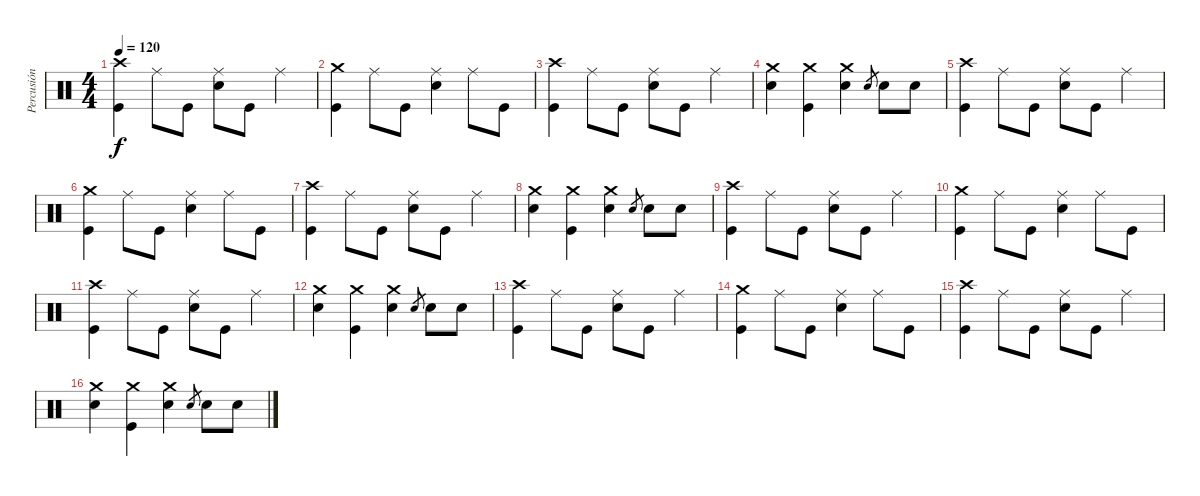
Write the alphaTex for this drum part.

\track ("Percusión" "Percusión") {instrument percussion}
\staff {score}
\articulation defaults
\ts (4 4)
\tempo 120
\clef neutral
\ks c
("Crash high (hit)" "Kick (hit)").4{dy f} "Ride (middle)".8 "Kick (hit)".8 ("Ride (middle)" "Electric Snare (hit)").8 "Kick (hit)".8 "Ride (middle)".4 |
("Crash medium (hit)" "Kick (hit)").4 "Ride (middle)".8 "Kick (hit)".8 ("Ride (middle)" "Electric Snare (hit)").4 "Ride (middle)".8 "Kick (hit)".8 |
("Crash high (hit)" "Kick (hit)").4 "Ride (middle)".8 "Kick (hit)".8 ("Ride (middle)" "Electric Snare (hit)").8 "Kick (hit)".8 "Ride (middle)".4 |
("Crash medium (hit)" "Electric Snare (hit)").4 ("Crash medium (hit)" "Kick (hit)").4 ("Crash medium (hit)" "Electric Snare (hit)").4 "Electric Snare (hit)".8{gr} "Electric Snare (hit)".8 "Electric Snare (hit)".8 |
("Crash high (hit)" "Kick (hit)").4 "Ride (middle)".8 "Kick (hit)".8 ("Ride (middle)" "Electric Snare (hit)").8 "Kick (hit)".8 "Ride (middle)".4 |
("Crash medium (hit)" "Kick (hit)").4 "Ride (middle)".8 "Kick (hit)".8 ("Ride (middle)" "Electric Snare (hit)").4 "Ride (middle)".8 "Kick (hit)".8 |
("Crash high (hit)" "Kick (hit)").4 "Ride (middle)".8 "Kick (hit)".8 ("Ride (middle)" "Electric Snare (hit)").8 "Kick (hit)".8 "Ride (middle)".4 |
("Crash medium (hit)" "Electric Snare (hit)").4 ("Crash medium (hit)" "Kick (hit)").4 ("Crash medium (hit)" "Electric Snare (hit)").4 "Electric Snare (hit)".8{gr} "Electric Snare (hit)".8 "Electric Snare (hit)".8 |
("Crash high (hit)" "Kick (hit)").4 "Ride (middle)".8 "Kick (hit)".8 ("Ride (middle)" "Electric Snare (hit)").8 "Kick (hit)".8 "Ride (middle)".4 |
("Crash medium (hit)" "Kick (hit)").4 "Ride (middle)".8 "Kick (hit)".8 ("Ride (middle)" "Electric Snare (hit)").4 "Ride (middle)".8 "Kick (hit)".8 |
("Crash high (hit)" "Kick (hit)").4 "Ride (middle)".8 "Kick (hit)".8 ("Ride (middle)" "Electric Snare (hit)").8 "Kick (hit)".8 "Ride (middle)".4 |
("Crash medium (hit)" "Electric Snare (hit)").4 ("Crash medium (hit)" "Kick (hit)").4 ("Crash medium (hit)" "Electric Snare (hit)").4 "Electric Snare (hit)".8{gr} "Electric Snare (hit)".8 "Electric Snare (hit)".8 |
("Crash high (hit)" "Kick (hit)").4 "Ride (middle)".8 "Kick (hit)".8 ("Ride (middle)" "Electric Snare (hit)").8 "Kick (hit)".8 "Ride (middle)".4 |
("Crash medium (hit)" "Kick (hit)").4 "Ride (middle)".8 "Kick (hit)".8 ("Ride (middle)" "Electric Snare (hit)").4 "Ride (middle)".8 "Kick (hit)".8 |
("Crash high (hit)" "Kick (hit)").4 "Ride (middle)".8 "Kick (hit)".8 ("Ride (middle)" "Electric Snare (hit)").8 "Kick (hit)".8 "Ride (middle)".4 |
("Crash medium (hit)" "Electric Snare (hit)").4 ("Crash medium (hit)" "Kick (hit)").4 ("Crash medium (hit)" "Electric Snare (hit)").4 "Electric Snare (hit)".8{gr} "Electric Snare (hit)".8 "Electric Snare (hit)".8
